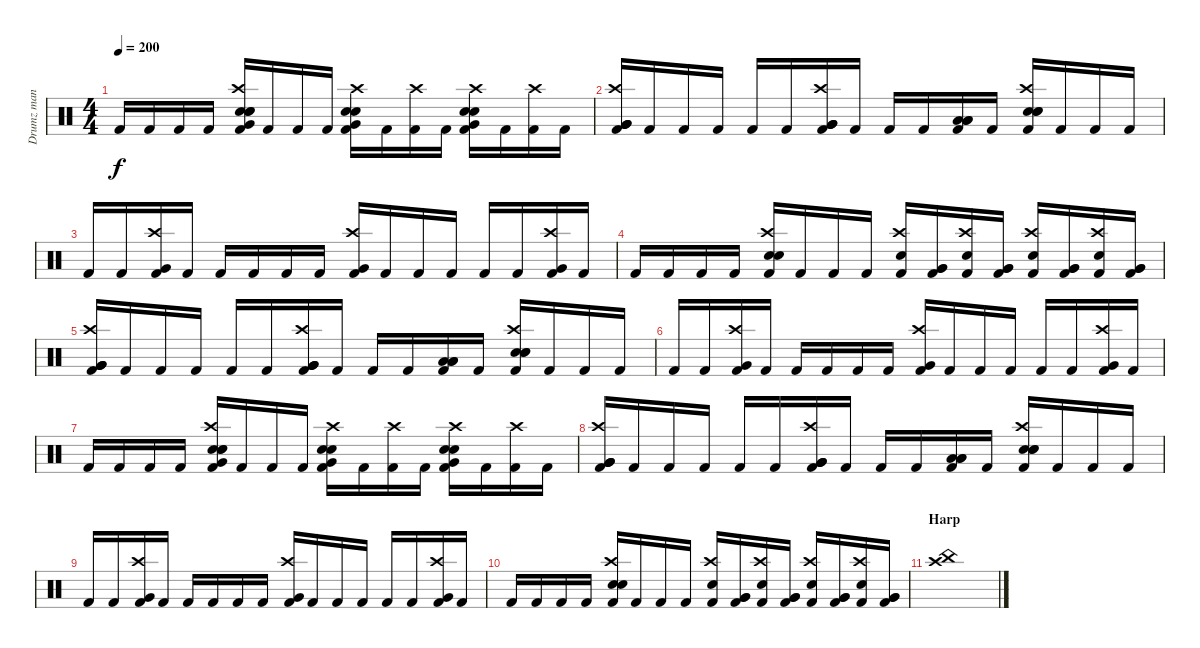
\track ("Drumz man" "Drumz man") {instrument percussion}
\staff {score}
\articulation defaults
\ts (4 4)
\tempo 200
\clef neutral
\ks c "Kick (hit) 2".16{dy f} "Kick (hit) 2".16 "Kick (hit) 2".16 "Kick (hit) 2".16
("Crash high (hit)" "Very Low Tom (hit)" "Kick (hit) 2" "Snare (hit) 2" "Snare (hit) 2" "Electric Snare (hit)").16 "Kick (hit) 2".16 "Kick (hit) 2".16 "Kick (hit) 2".16 ("Crash high (hit)" "Kick (hit) 2" "Very Low Tom (hit)" "Electric Snare (hit)" "Electric Snare (hit)").16 "Kick (hit) 2".16 ("Crash high (hit)" "Kick (hit) 2").16 "Kick (hit) 2".16 ("Crash high (hit)" "Kick (hit) 2" "Very Low Tom (hit)" "Electric Snare (hit)" "Electric Snare (hit)").16 "Kick (hit) 2".16 ("Crash high (hit)" "Kick (hit) 2").16 "Kick (hit) 2".16 |
("Crash high (hit)" "Kick (hit) 2" "Very Low Tom (hit)" "Very Low Tom (hit)" "Very Low Tom (hit)").16 "Kick (hit) 2".16 "Kick (hit) 2".16 "Kick (hit) 2".16 "Kick (hit) 2".16 "Kick (hit) 2".16 ("Crash high (hit)" "Kick (hit) 2" "Very Low Tom (hit)" "Very Low Tom (hit)" "Very Low Tom (hit)").16 "Kick (hit) 2".16 "Kick (hit) 2".16 "Kick (hit) 2".16 ("Kick (hit) 2" "Low Floor Tom (hit)" "Low Floor Tom (hit)" "Low Floor Tom (hit)").16 "Kick (hit) 2".16 ("Crash high (hit)" "Snare (hit) 2" "Kick (hit) 2" "Snare (hit) 2" "Electric Snare (hit)").16 "Kick (hit) 2".16 "Kick (hit) 2".16 "Kick (hit) 2".16 |
"Kick (hit) 2".16 "Kick (hit) 2".16 ("Crash high (hit)" "Kick (hit) 2" "Very Low Tom (hit)").16 "Kick (hit) 2".16 "Kick (hit) 2".16 "Kick (hit) 2".16 "Kick (hit) 2".16 "Kick (hit) 2".16 ("Crash high (hit)" "Kick (hit) 2" "Very Low Tom (hit)").16 "Kick (hit) 2".16 "Kick (hit) 2".16 "Kick (hit) 2".16 "Kick (hit) 2".16 "Kick (hit) 2".16 ("Crash high (hit)" "Kick (hit) 2" "Very Low Tom (hit)").16 "Kick (hit) 2".16 |
"Kick (hit) 2".16 "Kick (hit) 2".16 "Kick (hit) 2".16 "Kick (hit) 2".16 ("Crash high (hit)" "Kick (hit) 2" "Snare (hit) 2" "Snare (hit) 2").16 "Kick (hit) 2".16 "Kick (hit) 2".16 "Kick (hit) 2".16 ("Crash high (hit)" "Kick (hit) 2" "Electric Snare (hit)").16 ("Kick (hit) 2" "Very Low Tom (hit)" "Very Low Tom (hit)").16 ("Crash high (hit)" "Kick (hit) 2" "Electric Snare (hit)").16 ("Kick (hit) 2" "Very Low Tom (hit)" "Very Low Tom (hit)").16 ("Crash high (hit)" "Kick (hit) 2" "Electric Snare (hit)").16 ("Kick (hit) 2" "Very Low Tom (hit)" "Very Low Tom (hit)").16 ("Crash high (hit)" "Kick (hit) 2" "Electric Snare (hit)").16 ("Kick (hit) 2" "Very Low Tom (hit)" "Very Low Tom (hit)").16 |
("Crash high (hit)" "Kick (hit) 2" "Very Low Tom (hit)" "Very Low Tom (hit)" "Very Low Tom (hit)").16 "Kick (hit) 2".16 "Kick (hit) 2".16 "Kick (hit) 2".16 "Kick (hit) 2".16 "Kick (hit) 2".16 ("Crash high (hit)" "Kick (hit) 2" "Very Low Tom (hit)" "Very Low Tom (hit)" "Very Low Tom (hit)").16 "Kick (hit) 2".16 "Kick (hit) 2".16 "Kick (hit) 2".16 ("Kick (hit) 2" "Low Floor Tom (hit)" "Low Floor Tom (hit)" "Low Floor Tom (hit)").16 "Kick (hit) 2".16 ("Crash high (hit)" "Snare (hit) 2" "Kick (hit) 2" "Snare (hit) 2" "Electric Snare (hit)").16 "Kick (hit) 2".16 "Kick (hit) 2".16 "Kick (hit) 2".16 |
"Kick (hit) 2".16 "Kick (hit) 2".16 ("Crash high (hit)" "Kick (hit) 2" "Very Low Tom (hit)").16 "Kick (hit) 2".16 "Kick (hit) 2".16 "Kick (hit) 2".16 "Kick (hit) 2".16 "Kick (hit) 2".16 ("Crash high (hit)" "Kick (hit) 2" "Very Low Tom (hit)").16 "Kick (hit) 2".16 "Kick (hit) 2".16 "Kick (hit) 2".16 "Kick (hit) 2".16 "Kick (hit) 2".16 ("Crash high (hit)" "Kick (hit) 2" "Very Low Tom (hit)").16 "Kick (hit) 2".16 |
"Kick (hit) 2".16 "Kick (hit) 2".16 "Kick (hit) 2".16 "Kick (hit) 2".16 ("Crash high (hit)" "Very Low Tom (hit)" "Kick (hit) 2" "Snare (hit) 2" "Snare (hit) 2" "Electric Snare (hit)").16 "Kick (hit) 2".16 "Kick (hit) 2".16 "Kick (hit) 2".16 ("Crash high (hit)" "Kick (hit) 2" "Very Low Tom (hit)" "Electric Snare (hit)" "Electric Snare (hit)").16 "Kick (hit) 2".16 ("Crash high (hit)" "Kick (hit) 2").16 "Kick (hit) 2".16 ("Crash high (hit)" "Kick (hit) 2" "Very Low Tom (hit)" "Electric Snare (hit)" "Electric Snare (hit)").16 "Kick (hit) 2".16 ("Crash high (hit)" "Kick (hit) 2").16 "Kick (hit) 2".16 |
("Crash high (hit)" "Kick (hit) 2" "Very Low Tom (hit)" "Very Low Tom (hit)" "Very Low Tom (hit)").16 "Kick (hit) 2".16 "Kick (hit) 2".16 "Kick (hit) 2".16 "Kick (hit) 2".16 "Kick (hit) 2".16 ("Crash high (hit)" "Kick (hit) 2" "Very Low Tom (hit)" "Very Low Tom (hit)" "Very Low Tom (hit)").16 "Kick (hit) 2".16 "Kick (hit) 2".16 "Kick (hit) 2".16 ("Kick (hit) 2" "Low Floor Tom (hit)" "Low Floor Tom (hit)" "Low Floor Tom (hit)").16 "Kick (hit) 2".16 ("Crash high (hit)" "Snare (hit) 2" "Kick (hit) 2" "Snare (hit) 2" "Electric Snare (hit)").16 "Kick (hit) 2".16 "Kick (hit) 2".16 "Kick (hit) 2".16 |
"Kick (hit) 2".16 "Kick (hit) 2".16 ("Crash high (hit)" "Kick (hit) 2" "Very Low Tom (hit)").16 "Kick (hit) 2".16 "Kick (hit) 2".16 "Kick (hit) 2".16 "Kick (hit) 2".16 "Kick (hit) 2".16 ("Crash high (hit)" "Kick (hit) 2" "Very Low Tom (hit)").16 "Kick (hit) 2".16 "Kick (hit) 2".16 "Kick (hit) 2".16 "Kick (hit) 2".16 "Kick (hit) 2".16 ("Crash high (hit)" "Kick (hit) 2" "Very Low Tom (hit)").16 "Kick (hit) 2".16 |
"Kick (hit) 2".16 "Kick (hit) 2".16 "Kick (hit) 2".16 "Kick (hit) 2".16 ("Crash high (hit)" "Kick (hit) 2" "Snare (hit) 2" "Snare (hit) 2").16 "Kick (hit) 2".16 "Kick (hit) 2".16 "Kick (hit) 2".16 ("Crash high (hit)" "Kick (hit) 2" "Electric Snare (hit)").16 ("Kick (hit) 2" "Very Low Tom (hit)" "Very Low Tom (hit)").16 ("Crash high (hit)" "Kick (hit) 2" "Electric Snare (hit)").16 ("Kick (hit) 2" "Very Low Tom (hit)" "Very Low Tom (hit)").16 ("Crash high (hit)" "Kick (hit) 2" "Electric Snare (hit)").16 ("Kick (hit) 2" "Very Low Tom (hit)" "Very Low Tom (hit)").16 ("Crash high (hit)" "Kick (hit) 2" "Electric Snare (hit)").16 ("Kick (hit) 2" "Very Low Tom (hit)" "Very Low Tom (hit)").16 |
\section ("" "Harp")
("Crash high (hit)" "China (hit)").1
